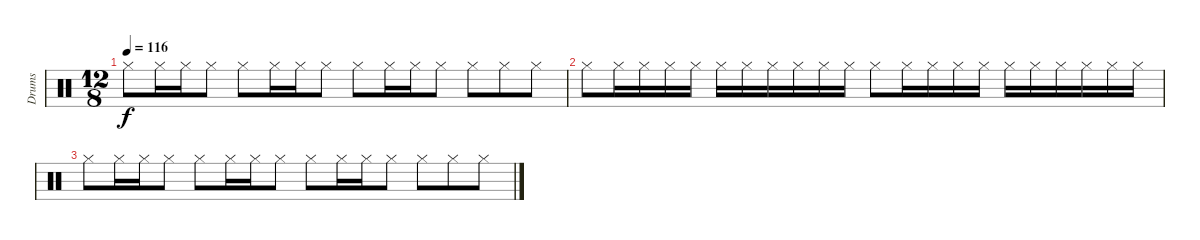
\track ("Drums" "Drums") {instrument percussion}
\staff {score}
\articulation defaults
\ts (12 8)
\tempo 116
\clef neutral
\ks c "Hi-Hat (closed)".8{dy f} "Hi-Hat (closed)".16 "Hi-Hat (closed)".16 "Hi-Hat (closed)".8 "Hi-Hat (closed)".8 "Hi-Hat (closed)".16 "Hi-Hat (closed)".16 "Hi-Hat (closed)".8 "Hi-Hat (closed)".8 "Hi-Hat (closed)".16 "Hi-Hat (closed)".16 "Hi-Hat (closed)".8 "Hi-Hat (closed)".8 "Hi-Hat (closed)".8 "Hi-Hat (closed)".8
|
"Hi-Hat (closed)".8 "Hi-Hat (closed)".16 "Hi-Hat (closed)".16 "Hi-Hat (closed)".16 "Hi-Hat (closed)".16 "Hi-Hat (closed)".16 "Hi-Hat (closed)".16 "Hi-Hat (closed)".16 "Hi-Hat (closed)".16 "Hi-Hat (closed)".16 "Hi-Hat (closed)".16 "Hi-Hat (closed)".8 "Hi-Hat (closed)".16 "Hi-Hat (closed)".16 "Hi-Hat (closed)".16 "Hi-Hat (closed)".16 "Hi-Hat (closed)".16 "Hi-Hat (closed)".16 "Hi-Hat (closed)".16 "Hi-Hat (closed)".16 "Hi-Hat (closed)".16 "Hi-Hat (closed)".16 |
"Hi-Hat (closed)".8 "Hi-Hat (closed)".16 "Hi-Hat (closed)".16 "Hi-Hat (closed)".8 "Hi-Hat (closed)".8 "Hi-Hat (closed)".16 "Hi-Hat (closed)".16 "Hi-Hat (closed)".8 "Hi-Hat (closed)".8 "Hi-Hat (closed)".16 "Hi-Hat (closed)".16 "Hi-Hat (closed)".8 "Hi-Hat (closed)".8 "Hi-Hat (closed)".8 "Hi-Hat (closed)".8
